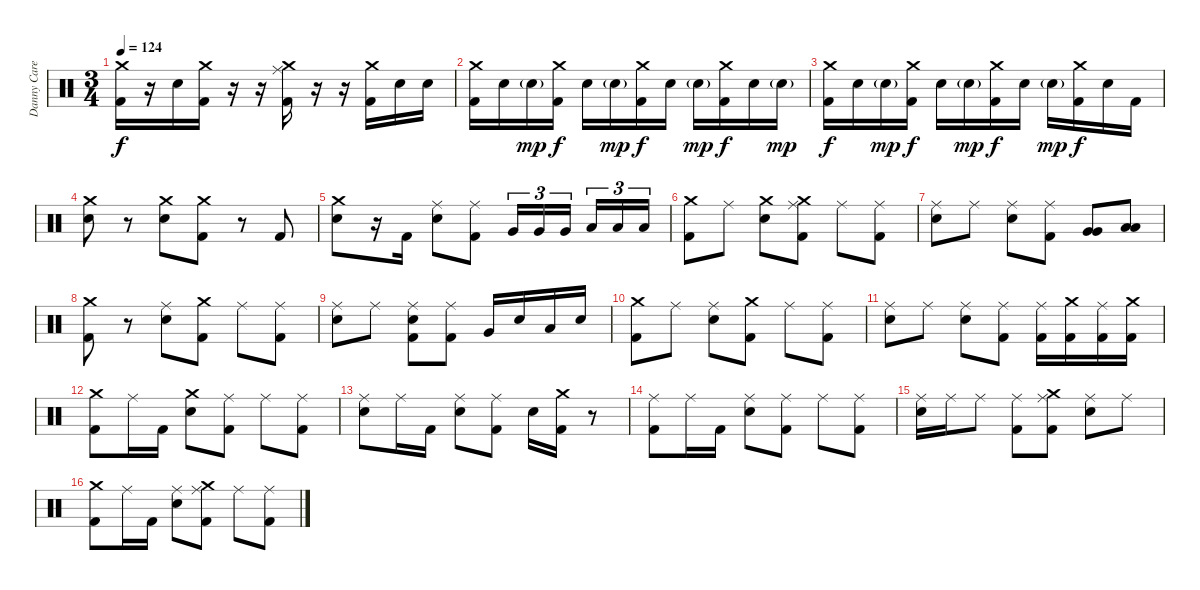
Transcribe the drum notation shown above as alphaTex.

\track ("Danny Carey" "Danny Care") {instrument percussion}
\staff {score}
\articulation defaults
\ts (3 4)
\tempo 124
\clef neutral
\ks c
("Crash medium (hit)" "Kick (hit) 2").16{dy f} r.16 "Electric Snare (hit)".16 ("Crash medium (hit)" "Kick (hit) 2").16 r.16 r.16 ("Crash medium (hit)" "Ride (middle)" "Kick (hit) 2").16 r.16 r.16 ("Crash medium (hit)" "Kick (hit) 2").16 "Electric Snare (hit)".16 "Electric Snare (hit)".16 |
("Crash medium (hit)" "Kick (hit) 2").16 "Electric Snare (hit)".16 "Electric Snare (hit)"{g}.16{dy mp} ("Crash medium (hit)" "Kick (hit) 2").16{dy f} "Electric Snare (hit)".16 "Electric Snare (hit)"{g}.16{dy mp} ("Crash medium (hit)" "Kick (hit) 2").16{dy f} "Electric Snare (hit)".16 "Electric Snare (hit)"{g}.16{dy mp} ("Crash medium (hit)" "Kick (hit) 2").16{dy f} "Electric Snare (hit)".16 "Electric Snare (hit)"{g}.16{dy mp} |
("Crash medium (hit)" "Kick (hit) 2").16{dy f} "Electric Snare (hit)".16 "Electric Snare (hit)"{g}.16{dy mp} ("Crash medium (hit)" "Kick (hit) 2").16{dy f} "Electric Snare (hit)".16 "Electric Snare (hit)"{g}.16{dy mp} ("Crash medium (hit)" "Kick (hit) 2").16{dy f} "Electric Snare (hit)".16 "Electric Snare (hit)"{g}.16{dy mp} ("Crash medium (hit)" "Kick (hit) 2").16{dy f} "Electric Snare (hit)".16 "Kick (hit) 2".16 |
("Crash medium (hit)" "Electric Snare (hit)").8 r.8 ("Crash medium (hit)" "Electric Snare (hit)").8 ("Crash medium (hit)" "Kick (hit) 2").8 r.8 "Kick (hit) 2".8 |
("Crash medium (hit)" "Electric Snare (hit)").8 r.16 "Kick (hit) 2".16 ("Ride (middle)" "Electric Snare (hit)").8 ("Ride (middle)" "Kick (hit) 2").8 "Very Low Tom (hit)".16{tu (3 2)} "Very Low Tom (hit)".16{tu (3 2)} "Very Low Tom (hit)".16{tu (3 2)} "Low Floor Tom (hit)".16{tu (3 2)} "Low Floor Tom (hit)".16{tu (3 2)} "Low Floor Tom (hit)".16{tu (3 2)} |
("Crash medium (hit)" "Kick (hit) 2").8 "Ride (middle)".8 ("Crash medium (hit)" "Electric Snare (hit)").8 ("Crash medium (hit)" "Ride (middle)" "Kick (hit) 2").8 "Ride (middle)".8 ("Ride (middle)" "Kick (hit) 2").8 |
("Ride (middle)" "Electric Snare (hit)").8 "Ride (middle)".8 ("Ride (middle)" "Electric Snare (hit)").8 ("Ride (middle)" "Kick (hit) 2").8 ("Very Low Tom (hit)" "Very Low Tom (hit)").8 ("Low Floor Tom (hit)" "Low Floor Tom (hit)").8 |
("Crash medium (hit)" "Kick (hit) 2").8 r.8 ("Ride (middle)" "Electric Snare (hit)").8 ("Crash medium (hit)" "Kick (hit) 2").8 "Ride (middle)".8 ("Ride (middle)" "Kick (hit) 2").8 |
("Ride (middle)" "Electric Snare (hit)").8 "Ride (middle)".8 ("Ride (middle)" "Electric Snare (hit)" "Kick (hit) 2").8 ("Ride (middle)" "Kick (hit) 2").8 "Very Low Tom (hit)".16 "Electric Snare (hit)".16 "Low Floor Tom (hit)".16 "Electric Snare (hit)".16 |
("Crash medium (hit)" "Kick (hit) 2").8 "Ride (middle)".8 ("Ride (middle)" "Electric Snare (hit)").8 ("Crash medium (hit)" "Kick (hit) 2").8 "Ride (middle)".8 ("Ride (middle)" "Kick (hit) 2").8 |
("Ride (middle)" "Electric Snare (hit)").8 "Ride (middle)".8 ("Ride (middle)" "Electric Snare (hit)").8 ("Ride (middle)" "Kick (hit) 2").8 ("Ride (middle)" "Kick (hit) 2").16 ("Crash medium (hit)" "Kick (hit) 2").16 ("Ride (middle)" "Kick (hit) 2").16 ("Crash medium (hit)" "Kick (hit) 2").16 |
("Crash medium (hit)" "Kick (hit) 2").8 "Ride (middle)".16 "Kick (hit) 2".16 ("Crash medium (hit)" "Electric Snare (hit)").8 ("Ride (middle)" "Kick (hit) 2").8 "Ride (middle)".8 ("Ride (middle)" "Kick (hit) 2").8 |
("Ride (middle)" "Electric Snare (hit)").8 "Ride (middle)".16 "Kick (hit) 2".16 ("Ride (middle)" "Electric Snare (hit)").8 ("Ride (middle)" "Kick (hit) 2").8 "Electric Snare (hit)".16 ("Crash medium (hit)" "Kick (hit) 2").16 r.8 |
("Ride (middle)" "Kick (hit) 2").8 "Ride (middle)".16 "Kick (hit) 2".16 ("Ride (middle)" "Electric Snare (hit)").8 ("Ride (middle)" "Kick (hit) 2").8 "Ride (middle)".8 ("Ride (middle)" "Kick (hit) 2").8 |
("Ride (middle)" "Electric Snare (hit)").16 "Ride (middle)".16 "Ride (middle)".8 ("Ride (middle)" "Kick (hit) 2").8 ("Crash medium (hit)" "Ride (middle)" "Kick (hit) 2").8 ("Ride (middle)" "Electric Snare (hit)").8 "Ride (middle)".8 |
("Crash medium (hit)" "Kick (hit) 2").8 "Ride (middle)".16 "Kick (hit) 2".16 ("Ride (middle)" "Electric Snare (hit)").8 ("Crash medium (hit)" "Ride (middle)" "Kick (hit) 2").8 "Ride (middle)".8 ("Ride (middle)" "Kick (hit) 2").8
